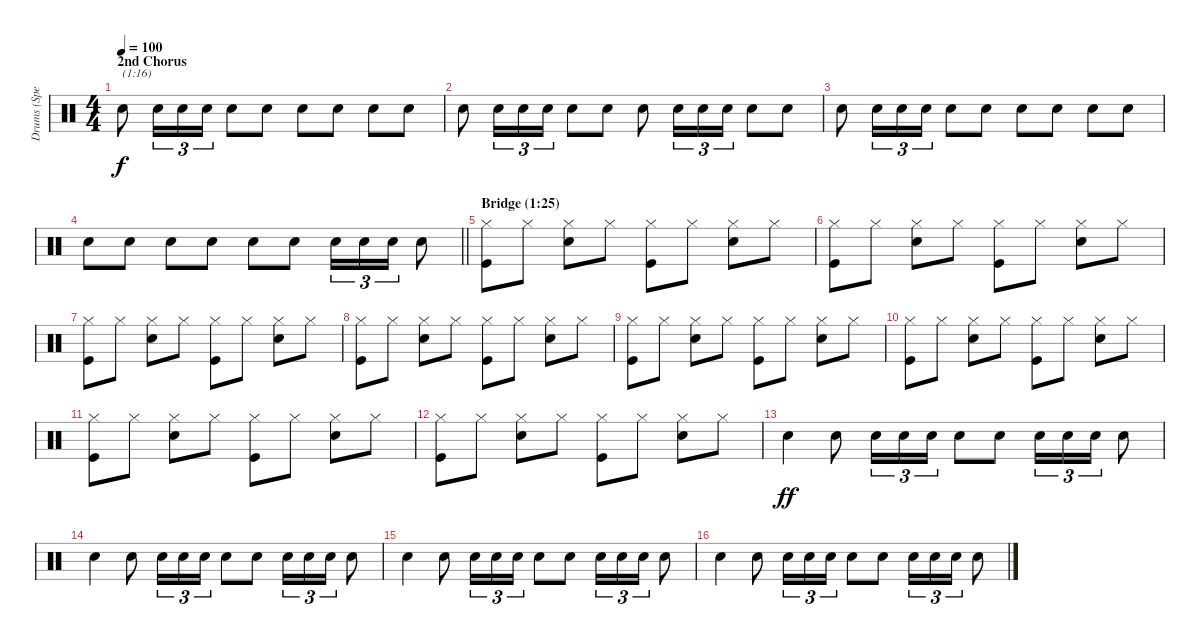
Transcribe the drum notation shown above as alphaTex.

\track ("Drums (Spencer Dryden)" "Drums (Spe") {instrument percussion}
\staff {score}
\articulation defaults
\ts (4 4)
\section ("" "2nd Chorus")
\tempo 100
\clef neutral
\ks c "Snare (hit) 2".8{txt "(1:16)" dy f} "Snare (hit) 2".16{tu (3 2)} "Snare (hit) 2".16{tu (3 2)} "Snare (hit) 2".16{tu (3 2)} "Snare (hit) 2".8 "Snare (hit) 2".8 "Snare (hit) 2".8 "Snare (hit) 2".8 "Snare (hit) 2".8 "Snare (hit) 2".8
|
"Snare (hit) 2".8 "Snare (hit) 2".16{tu (3 2)} "Snare (hit) 2".16{tu (3 2)} "Snare (hit) 2".16{tu (3 2)} "Snare (hit) 2".8 "Snare (hit) 2".8 "Snare (hit) 2".8 "Snare (hit) 2".16{tu (3 2)} "Snare (hit) 2".16{tu (3 2)} "Snare (hit) 2".16{tu (3 2)} "Snare (hit) 2".8 "Snare (hit) 2".8 |
"Snare (hit) 2".8 "Snare (hit) 2".16{tu (3 2)} "Snare (hit) 2".16{tu (3 2)} "Snare (hit) 2".16{tu (3 2)} "Snare (hit) 2".8 "Snare (hit) 2".8 "Snare (hit) 2".8 "Snare (hit) 2".8 "Snare (hit) 2".8 "Snare (hit) 2".8 |
\barLineRight lightlight "Snare (hit) 2".8 "Snare (hit) 2".8 "Snare (hit) 2".8 "Snare (hit) 2".8 "Snare (hit) 2".8 "Snare (hit) 2".8 "Snare (hit) 2".16{tu (3 2)} "Snare (hit) 2".16{tu (3 2)} "Snare (hit) 2".16{tu (3 2)} "Snare (hit) 2".8
|
\section ("" "Bridge (1:25)")
("Hi-Hat (closed)" "Kick (hit)").8 "Hi-Hat (closed)".8 ("Hi-Hat (closed)" "Snare (hit) 2").8 "Hi-Hat (closed)".8 ("Hi-Hat (closed)" "Kick (hit)").8 "Hi-Hat (closed)".8 ("Hi-Hat (closed)" "Snare (hit) 2").8 "Hi-Hat (closed)".8 |
("Hi-Hat (closed)" "Kick (hit)").8 "Hi-Hat (closed)".8 ("Hi-Hat (closed)" "Snare (hit) 2").8 "Hi-Hat (closed)".8 ("Hi-Hat (closed)" "Kick (hit)").8 "Hi-Hat (closed)".8 ("Hi-Hat (closed)" "Snare (hit) 2").8 "Hi-Hat (closed)".8 |
("Hi-Hat (closed)" "Kick (hit)").8 "Hi-Hat (closed)".8 ("Hi-Hat (closed)" "Snare (hit) 2").8 "Hi-Hat (closed)".8 ("Hi-Hat (closed)" "Kick (hit)").8 "Hi-Hat (closed)".8 ("Hi-Hat (closed)" "Snare (hit) 2").8 "Hi-Hat (closed)".8 |
("Hi-Hat (closed)" "Kick (hit)").8 "Hi-Hat (closed)".8 ("Hi-Hat (closed)" "Snare (hit) 2").8 "Hi-Hat (closed)".8 ("Hi-Hat (closed)" "Kick (hit)").8 "Hi-Hat (closed)".8 ("Hi-Hat (closed)" "Snare (hit) 2").8 "Hi-Hat (closed)".8 |
("Hi-Hat (closed)" "Kick (hit)").8 "Hi-Hat (closed)".8 ("Hi-Hat (closed)" "Snare (hit) 2").8 "Hi-Hat (closed)".8 ("Hi-Hat (closed)" "Kick (hit)").8 "Hi-Hat (closed)".8 ("Hi-Hat (closed)" "Snare (hit) 2").8 "Hi-Hat (closed)".8 |
("Hi-Hat (closed)" "Kick (hit)").8 "Hi-Hat (closed)".8 ("Hi-Hat (closed)" "Snare (hit) 2").8 "Hi-Hat (closed)".8 ("Hi-Hat (closed)" "Kick (hit)").8 "Hi-Hat (closed)".8 ("Hi-Hat (closed)" "Snare (hit) 2").8 "Hi-Hat (closed)".8 |
("Hi-Hat (closed)" "Kick (hit)").8 "Hi-Hat (closed)".8 ("Hi-Hat (closed)" "Snare (hit) 2").8 "Hi-Hat (closed)".8 ("Hi-Hat (closed)" "Kick (hit)").8 "Hi-Hat (closed)".8 ("Hi-Hat (closed)" "Snare (hit) 2").8 "Hi-Hat (closed)".8 |
("Hi-Hat (closed)" "Kick (hit)").8 "Hi-Hat (closed)".8 ("Hi-Hat (closed)" "Snare (hit) 2").8 "Hi-Hat (closed)".8 ("Hi-Hat (closed)" "Kick (hit)").8 "Hi-Hat (closed)".8 ("Hi-Hat (closed)" "Snare (hit) 2").8 "Hi-Hat (closed)".8 |
"Snare (hit) 2".4{dy ff} "Snare (hit) 2".8 "Snare (hit) 2".16{tu (3 2)} "Snare (hit) 2".16{tu (3 2)} "Snare (hit) 2".16{tu (3 2)} "Snare (hit) 2".8 "Snare (hit) 2".8 "Snare (hit) 2".16{tu (3 2)} "Snare (hit) 2".16{tu (3 2)} "Snare (hit) 2".16{tu (3 2)} "Snare (hit) 2".8 |
"Snare (hit) 2".4 "Snare (hit) 2".8 "Snare (hit) 2".16{tu (3 2)} "Snare (hit) 2".16{tu (3 2)} "Snare (hit) 2".16{tu (3 2)} "Snare (hit) 2".8 "Snare (hit) 2".8 "Snare (hit) 2".16{tu (3 2)} "Snare (hit) 2".16{tu (3 2)} "Snare (hit) 2".16{tu (3 2)} "Snare (hit) 2".8 |
"Snare (hit) 2".4 "Snare (hit) 2".8 "Snare (hit) 2".16{tu (3 2)} "Snare (hit) 2".16{tu (3 2)} "Snare (hit) 2".16{tu (3 2)} "Snare (hit) 2".8 "Snare (hit) 2".8 "Snare (hit) 2".16{tu (3 2)} "Snare (hit) 2".16{tu (3 2)} "Snare (hit) 2".16{tu (3 2)} "Snare (hit) 2".8 |
"Snare (hit) 2".4 "Snare (hit) 2".8 "Snare (hit) 2".16{tu (3 2)} "Snare (hit) 2".16{tu (3 2)} "Snare (hit) 2".16{tu (3 2)} "Snare (hit) 2".8 "Snare (hit) 2".8 "Snare (hit) 2".16{tu (3 2)} "Snare (hit) 2".16{tu (3 2)} "Snare (hit) 2".16{tu (3 2)} "Snare (hit) 2".8
